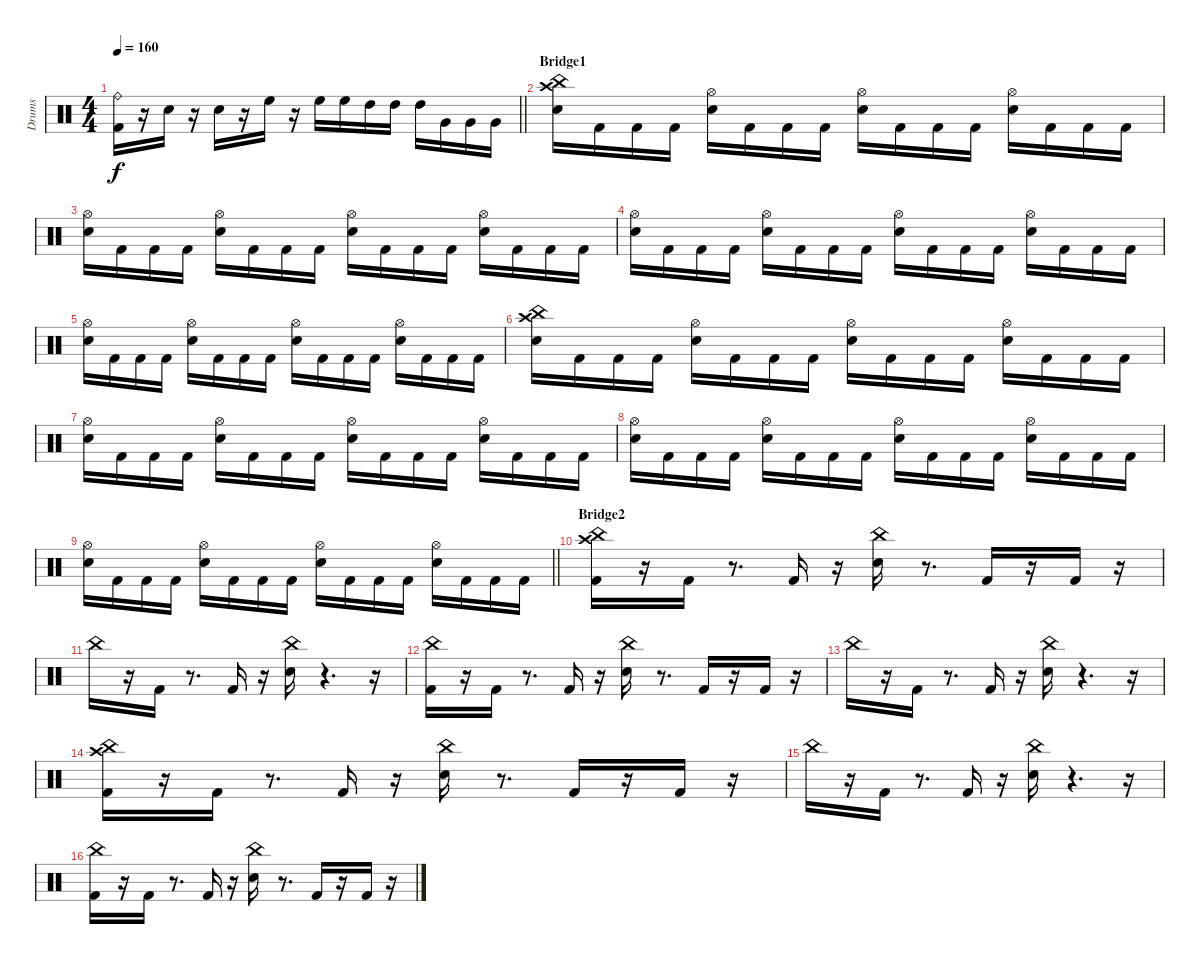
\track ("Drums" "Drums") {instrument percussion}
\staff {score}
\articulation defaults
\ts (4 4)
\tempo 160
\clef neutral
\barLineRight lightlight
\ks c
("Kick (hit) 2" "Ride (bell)").16{dy f} r.16 "Snare (hit) 2".16 r.16 "Snare (hit) 2".16 r.16 "High Floor Tom (hit)".16 r.16 "High Floor Tom (hit)".16 "High Floor Tom (hit)".16 "High Tom (hit)".16 "High Tom (hit)".16 "High Tom (hit)".16 "Very Low Tom (hit)".16 "Very Low Tom (hit)".16 "Very Low Tom (hit)".16 |
\section ("" "Bridge1")
("Snare (hit) 2" "Crash high (hit)" "China (hit)").16 "Kick (hit) 2".16 "Kick (hit) 2".16 "Kick (hit) 2".16 ("Snare (hit) 2" "Hi-Hat (open)").16 "Kick (hit) 2".16 "Kick (hit) 2".16 "Kick (hit) 2".16 ("Snare (hit) 2" "Hi-Hat (open)").16 "Kick (hit) 2".16 "Kick (hit) 2".16 "Kick (hit) 2".16 ("Snare (hit) 2" "Hi-Hat (open)").16 "Kick (hit) 2".16 "Kick (hit) 2".16 "Kick (hit) 2".16 |
("Snare (hit) 2" "Hi-Hat (open)").16 "Kick (hit) 2".16 "Kick (hit) 2".16 "Kick (hit) 2".16 ("Snare (hit) 2" "Hi-Hat (open)").16 "Kick (hit) 2".16 "Kick (hit) 2".16 "Kick (hit) 2".16 ("Snare (hit) 2" "Hi-Hat (open)").16 "Kick (hit) 2".16 "Kick (hit) 2".16 "Kick (hit) 2".16 ("Snare (hit) 2" "Hi-Hat (open)").16 "Kick (hit) 2".16 "Kick (hit) 2".16 "Kick (hit) 2".16 |
("Snare (hit) 2" "Hi-Hat (open)").16 "Kick (hit) 2".16 "Kick (hit) 2".16 "Kick (hit) 2".16 ("Snare (hit) 2" "Hi-Hat (open)").16 "Kick (hit) 2".16 "Kick (hit) 2".16 "Kick (hit) 2".16 ("Snare (hit) 2" "Hi-Hat (open)").16 "Kick (hit) 2".16 "Kick (hit) 2".16 "Kick (hit) 2".16 ("Snare (hit) 2" "Hi-Hat (open)").16 "Kick (hit) 2".16 "Kick (hit) 2".16 "Kick (hit) 2".16 |
("Snare (hit) 2" "Hi-Hat (open)").16 "Kick (hit) 2".16 "Kick (hit) 2".16 "Kick (hit) 2".16 ("Snare (hit) 2" "Hi-Hat (open)").16 "Kick (hit) 2".16 "Kick (hit) 2".16 "Kick (hit) 2".16 ("Snare (hit) 2" "Hi-Hat (open)").16 "Kick (hit) 2".16 "Kick (hit) 2".16 "Kick (hit) 2".16 ("Snare (hit) 2" "Hi-Hat (open)").16 "Kick (hit) 2".16 "Kick (hit) 2".16 "Kick (hit) 2".16 |
("Snare (hit) 2" "Crash high (hit)" "China (hit)").16 "Kick (hit) 2".16 "Kick (hit) 2".16 "Kick (hit) 2".16 ("Snare (hit) 2" "Hi-Hat (open)").16 "Kick (hit) 2".16 "Kick (hit) 2".16 "Kick (hit) 2".16 ("Snare (hit) 2" "Hi-Hat (open)").16 "Kick (hit) 2".16 "Kick (hit) 2".16 "Kick (hit) 2".16 ("Snare (hit) 2" "Hi-Hat (open)").16 "Kick (hit) 2".16 "Kick (hit) 2".16 "Kick (hit) 2".16 |
("Snare (hit) 2" "Hi-Hat (open)").16 "Kick (hit) 2".16 "Kick (hit) 2".16 "Kick (hit) 2".16 ("Snare (hit) 2" "Hi-Hat (open)").16 "Kick (hit) 2".16 "Kick (hit) 2".16 "Kick (hit) 2".16 ("Snare (hit) 2" "Hi-Hat (open)").16 "Kick (hit) 2".16 "Kick (hit) 2".16 "Kick (hit) 2".16 ("Snare (hit) 2" "Hi-Hat (open)").16 "Kick (hit) 2".16 "Kick (hit) 2".16 "Kick (hit) 2".16 |
("Snare (hit) 2" "Hi-Hat (open)").16 "Kick (hit) 2".16 "Kick (hit) 2".16 "Kick (hit) 2".16 ("Snare (hit) 2" "Hi-Hat (open)").16 "Kick (hit) 2".16 "Kick (hit) 2".16 "Kick (hit) 2".16 ("Snare (hit) 2" "Hi-Hat (open)").16 "Kick (hit) 2".16 "Kick (hit) 2".16 "Kick (hit) 2".16 ("Snare (hit) 2" "Hi-Hat (open)").16 "Kick (hit) 2".16 "Kick (hit) 2".16 "Kick (hit) 2".16 |
\barLineRight lightlight
("Snare (hit) 2" "Hi-Hat (open)").16 "Kick (hit) 2".16 "Kick (hit) 2".16 "Kick (hit) 2".16 ("Snare (hit) 2" "Hi-Hat (open)").16 "Kick (hit) 2".16 "Kick (hit) 2".16 "Kick (hit) 2".16 ("Snare (hit) 2" "Hi-Hat (open)").16 "Kick (hit) 2".16 "Kick (hit) 2".16 "Kick (hit) 2".16 ("Snare (hit) 2" "Hi-Hat (open)").16 "Kick (hit) 2".16 "Kick (hit) 2".16 "Kick (hit) 2".16 |
\section ("" "Bridge2")
("Kick (hit) 2" "Crash high (hit)" "China (hit)").16 r.16 "Kick (hit) 2".16 r.8{d} "Kick (hit) 2".16 r.16 ("Snare (hit) 2" "China (hit)").16 r.8{d} "Kick (hit) 2".16 r.16 "Kick (hit) 2".16 r.16 |
"China (hit)".16 r.16 "Kick (hit) 2".16 r.8{d} "Kick (hit) 2".16 r.16 ("Snare (hit) 2" "China (hit)").16 r.4{d} r.16 |
("Kick (hit) 2" "China (hit)").16 r.16 "Kick (hit) 2".16 r.8{d} "Kick (hit) 2".16 r.16 ("Snare (hit) 2" "China (hit)").16 r.8{d} "Kick (hit) 2".16 r.16 "Kick (hit) 2".16 r.16 |
"China (hit)".16 r.16 "Kick (hit) 2".16 r.8{d} "Kick (hit) 2".16 r.16 ("Snare (hit) 2" "China (hit)").16 r.4{d} r.16 |
("Kick (hit) 2" "Crash high (hit)" "China (hit)").16 r.16 "Kick (hit) 2".16 r.8{d} "Kick (hit) 2".16 r.16 ("Snare (hit) 2" "China (hit)").16 r.8{d} "Kick (hit) 2".16 r.16 "Kick (hit) 2".16 r.16 |
"China (hit)".16 r.16 "Kick (hit) 2".16 r.8{d} "Kick (hit) 2".16 r.16 ("Snare (hit) 2" "China (hit)").16 r.4{d} r.16 |
("Kick (hit) 2" "China (hit)").16 r.16 "Kick (hit) 2".16 r.8{d} "Kick (hit) 2".16 r.16 ("Snare (hit) 2" "China (hit)").16 r.8{d} "Kick (hit) 2".16 r.16 "Kick (hit) 2".16 r.16
